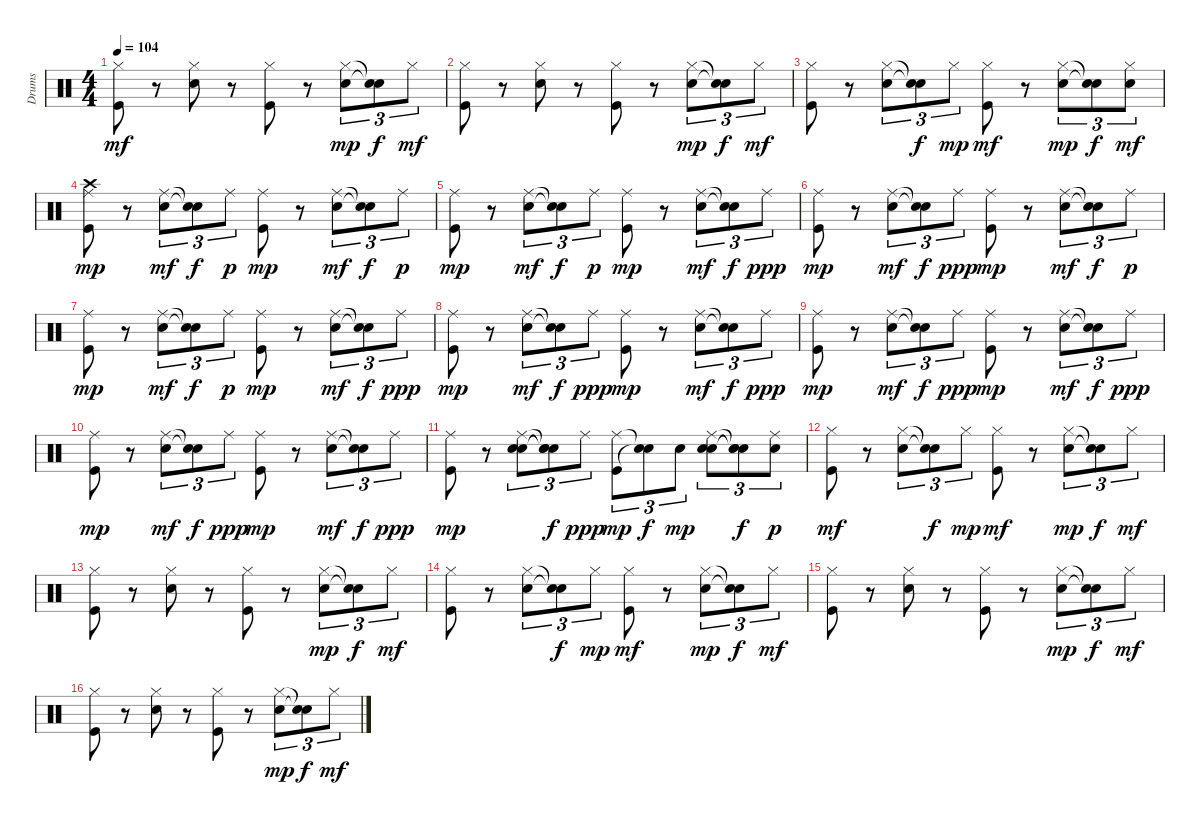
\track ("Drums   " "Drums   ") {instrument percussion}
\staff {score}
\articulation defaults
\ts (4 4)
\tempo 104
\clef neutral
\ks c
("Kick (hit)" "Hi-Hat (closed)").8{dy mf} r.8 ("Snare (hit) 2" "Hi-Hat (closed)").8 r.8 ("Kick (hit)" "Hi-Hat (closed)").8 r.8 ("Snare (hit) 2" "Hi-Hat (closed)").8{tu (3 2) dy mp} ("Snare (hit)"{t} "Snare (hit)"{t}).8{tu (3 2) dy f} "Hi-Hat (closed)".8{tu (3 2) dy mf} |
("Kick (hit)" "Hi-Hat (closed)").8 r.8 ("Snare (hit) 2" "Hi-Hat (closed)").8 r.8 ("Kick (hit)" "Hi-Hat (closed)").8 r.8 ("Snare (hit) 2" "Hi-Hat (closed)").8{tu (3 2) dy mp} ("Snare (hit)"{t} "Snare (hit)"{t}).8{tu (3 2) dy f} "Hi-Hat (closed)".8{tu (3 2) dy mf} |
("Kick (hit)" "Hi-Hat (closed)").8 r.8 ("Snare (hit) 2" "Hi-Hat (closed)").8{tu (3 2)} ("Snare (hit)"{t} "Snare (hit)"{t}).8{tu (3 2) dy f} "Hi-Hat (closed)".8{tu (3 2) dy mp} ("Kick (hit)" "Hi-Hat (closed)").8{dy mf} r.8 ("Snare (hit) 2" "Hi-Hat (closed)").8{tu (3 2) dy mp} ("Snare (hit)"{t} "Snare (hit)"{t}).8{tu (3 2) dy f} ("Snare (hit) 2" "Hi-Hat (closed)").8{tu (3 2) dy mf} |
("Kick (hit)" "Ride (middle)" "Crash high (hit)").8{dy mp} r.8 ("Snare (hit) 2" "Ride (middle)").8{tu (3 2) dy mf} ("Snare (hit)"{t} "Snare (hit)"{t}).8{tu (3 2) dy f} "Ride (middle)".8{tu (3 2) dy p} ("Kick (hit)" "Ride (middle)").8{dy mp} r.8 ("Snare (hit) 2" "Ride (middle)").8{tu (3 2) dy mf} ("Snare (hit)"{t} "Snare (hit)"{t}).8{tu (3 2) dy f} "Ride (middle)".8{tu (3 2) dy p} |
("Kick (hit)" "Ride (middle)").8{dy mp} r.8 ("Snare (hit) 2" "Ride (middle)").8{tu (3 2) dy mf} ("Snare (hit)"{t} "Snare (hit)"{t}).8{tu (3 2) dy f} "Ride (middle)".8{tu (3 2) dy p} ("Kick (hit)" "Ride (middle)").8{dy mp} r.8 ("Snare (hit) 2" "Ride (middle)").8{tu (3 2) dy mf} ("Snare (hit)"{t} "Snare (hit)"{t}).8{tu (3 2) dy f} "Ride (middle)".8{tu (3 2) dy ppp} |
("Kick (hit)" "Ride (middle)").8{dy mp} r.8 ("Snare (hit) 2" "Ride (middle)").8{tu (3 2) dy mf} ("Snare (hit)"{t} "Snare (hit)"{t}).8{tu (3 2) dy f} "Ride (middle)".8{tu (3 2) dy ppp} ("Kick (hit)" "Ride (middle)").8{dy mp} r.8 ("Snare (hit) 2" "Ride (middle)").8{tu (3 2) dy mf} ("Snare (hit)"{t} "Snare (hit)"{t}).8{tu (3 2) dy f} "Ride (middle)".8{tu (3 2) dy p} |
("Kick (hit)" "Ride (middle)").8{dy mp} r.8 ("Snare (hit) 2" "Ride (middle)").8{tu (3 2) dy mf} ("Snare (hit)"{t} "Snare (hit)"{t}).8{tu (3 2) dy f} "Ride (middle)".8{tu (3 2) dy p} ("Kick (hit)" "Ride (middle)").8{dy mp} r.8 ("Snare (hit) 2" "Ride (middle)").8{tu (3 2) dy mf} ("Snare (hit)"{t} "Snare (hit)"{t}).8{tu (3 2) dy f} "Ride (middle)".8{tu (3 2) dy ppp} |
("Kick (hit)" "Ride (middle)").8{dy mp} r.8 ("Snare (hit) 2" "Ride (middle)").8{tu (3 2) dy mf} ("Snare (hit)"{t} "Snare (hit)"{t}).8{tu (3 2) dy f} "Ride (middle)".8{tu (3 2) dy ppp} ("Kick (hit)" "Ride (middle)").8{dy mp} r.8 ("Snare (hit) 2" "Ride (middle)").8{tu (3 2) dy mf} ("Snare (hit)"{t} "Snare (hit)"{t}).8{tu (3 2) dy f} "Ride (middle)".8{tu (3 2) dy ppp} |
("Kick (hit)" "Ride (middle)").8{dy mp} r.8 ("Snare (hit) 2" "Ride (middle)").8{tu (3 2) dy mf} ("Snare (hit)"{t} "Snare (hit)"{t}).8{tu (3 2) dy f} "Ride (middle)".8{tu (3 2) dy ppp} ("Kick (hit)" "Ride (middle)").8{dy mp} r.8 ("Snare (hit) 2" "Ride (middle)").8{tu (3 2) dy mf} ("Snare (hit)"{t} "Snare (hit)"{t}).8{tu (3 2) dy f} "Ride (middle)".8{tu (3 2) dy ppp} |
("Kick (hit)" "Ride (middle)").8{dy mp} r.8 ("Snare (hit) 2" "Ride (middle)").8{tu (3 2) dy mf} ("Snare (hit)"{t} "Snare (hit)"{t}).8{tu (3 2) dy f} "Ride (middle)".8{tu (3 2) dy ppp} ("Kick (hit)" "Ride (middle)").8{dy mp} r.8 ("Snare (hit) 2" "Ride (middle)").8{tu (3 2) dy mf} ("Snare (hit)"{t} "Snare (hit)"{t}).8{tu (3 2) dy f} "Ride (middle)".8{tu (3 2) dy ppp} |
("Kick (hit)" "Ride (middle)").8{dy mp} r.8 ("Snare (hit) 2" "Ride (middle)" "Hand Clap (hit)").8{tu (3 2)} ("Snare (hit)"{t} "Snare (hit)"{t} "Snare (hit)"{t}).8{tu (3 2) dy f} "Ride (middle)".8{tu (3 2) dy ppp} ("Kick (hit)" "Ride (middle)").8{tu (3 2) dy mp} ("Snare (hit)"{t} "Snare (hit)"{t}).8{tu (3 2) dy f} "Snare (hit) 2".8{tu (3 2) dy mp} ("Snare (hit) 2" "Ride (middle)" "Hand Clap (hit)").8{tu (3 2)} ("Snare (hit)"{t} "Snare (hit)"{t} "Snare (hit)"{t}).8{tu (3 2) dy f} ("Snare (hit) 2" "Ride (middle)").8{tu (3 2) dy p} |
("Kick (hit)" "Hi-Hat (closed)").8{dy mf} r.8 ("Snare (hit) 2" "Hi-Hat (closed)").8{tu (3 2)} ("Snare (hit)"{t} "Snare (hit)"{t}).8{tu (3 2) dy f} "Hi-Hat (closed)".8{tu (3 2) dy mp} ("Kick (hit)" "Hi-Hat (closed)").8{dy mf} r.8 ("Snare (hit) 2" "Hi-Hat (closed)").8{tu (3 2) dy mp} ("Snare (hit)"{t} "Snare (hit)"{t}).8{tu (3 2) dy f} "Hi-Hat (closed)".8{tu (3 2) dy mf} |
("Kick (hit)" "Hi-Hat (closed)").8 r.8 ("Snare (hit) 2" "Hi-Hat (closed)").8 r.8 ("Kick (hit)" "Hi-Hat (closed)").8 r.8 ("Snare (hit) 2" "Hi-Hat (closed)").8{tu (3 2) dy mp} ("Snare (hit)"{t} "Snare (hit)"{t}).8{tu (3 2) dy f} "Hi-Hat (closed)".8{tu (3 2) dy mf} |
("Kick (hit)" "Hi-Hat (closed)").8 r.8 ("Snare (hit) 2" "Hi-Hat (closed)").8{tu (3 2)} ("Snare (hit)"{t} "Snare (hit)"{t}).8{tu (3 2) dy f} "Hi-Hat (closed)".8{tu (3 2) dy mp} ("Kick (hit)" "Hi-Hat (closed)").8{dy mf} r.8 ("Snare (hit) 2" "Hi-Hat (closed)").8{tu (3 2) dy mp} ("Snare (hit)"{t} "Snare (hit)"{t}).8{tu (3 2) dy f} "Hi-Hat (closed)".8{tu (3 2) dy mf} |
("Kick (hit)" "Hi-Hat (closed)").8 r.8 ("Snare (hit) 2" "Hi-Hat (closed)").8 r.8 ("Kick (hit)" "Hi-Hat (closed)").8 r.8 ("Snare (hit) 2" "Hi-Hat (closed)").8{tu (3 2) dy mp} ("Snare (hit)"{t} "Snare (hit)"{t}).8{tu (3 2) dy f} "Hi-Hat (closed)".8{tu (3 2) dy mf} |
("Kick (hit)" "Hi-Hat (closed)").8 r.8 ("Snare (hit) 2" "Hi-Hat (closed)").8 r.8 ("Kick (hit)" "Hi-Hat (closed)").8 r.8 ("Snare (hit) 2" "Hi-Hat (closed)").8{tu (3 2) dy mp} ("Snare (hit)"{t} "Snare (hit)"{t}).8{tu (3 2) dy f} "Hi-Hat (closed)".8{tu (3 2) dy mf}
